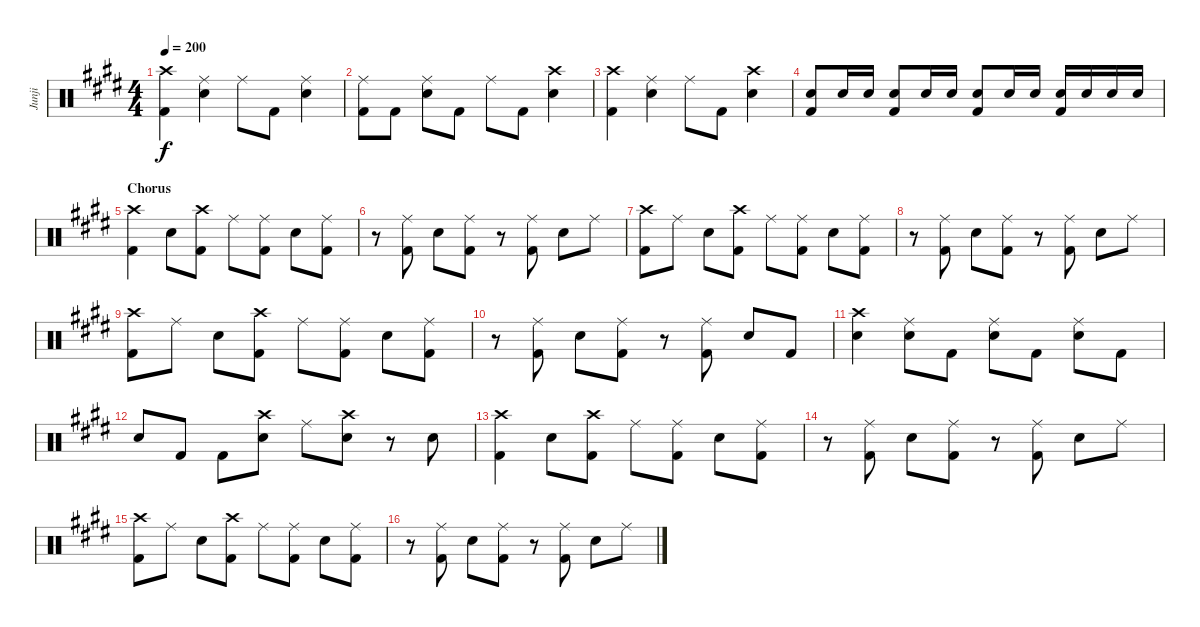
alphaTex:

\track ("Junji" "Junji") {instrument percussion}
\staff {score}
\articulation defaults
\ts (4 4)
\tempo 200
\clef neutral
\ks e
("Crash high (hit)" "Kick (hit) 2").4{dy f} ("Ride (middle)" "Snare (hit) 2").4 "Ride (middle)".8 "Kick (hit) 2".8 ("Ride (middle)" "Snare (hit) 2").4 |
("Ride (middle)" "Kick (hit) 2").8 "Kick (hit) 2".8 ("Ride (middle)" "Snare (hit) 2").8 "Kick (hit) 2".8 "Ride (middle)".8 "Kick (hit) 2".8 ("Crash high (hit)" "Snare (hit) 2").4 |
("Crash high (hit)" "Kick (hit) 2").4 ("Ride (middle)" "Snare (hit) 2").4 "Ride (middle)".8 "Kick (hit) 2".8 ("Crash high (hit)" "Snare (hit) 2").4 |
("Snare (hit) 2" "Kick (hit) 2").8 "Snare (hit) 2".16 "Snare (hit) 2".16 ("Snare (hit) 2" "Kick (hit) 2").8 "Snare (hit) 2".16 "Snare (hit) 2".16 ("Snare (hit) 2" "Kick (hit) 2").8 "Snare (hit) 2".16 "Snare (hit) 2".16 ("Snare (hit) 2" "Kick (hit) 2").16 "Snare (hit) 2".16 "Snare (hit) 2".16 "Snare (hit) 2".16 |
\section ("" "Chorus")
("Crash high (hit)" "Kick (hit) 2").4 "Snare (hit) 2".8 ("Crash high (hit)" "Kick (hit) 2").8 "Ride (middle)".8 ("Ride (middle)" "Kick (hit) 2").8 "Snare (hit) 2".8 ("Ride (middle)" "Kick (hit) 2").8 |
r.8 ("Ride (middle)" "Kick (hit) 2").8 "Snare (hit) 2".8 ("Ride (middle)" "Kick (hit) 2").8 r.8 ("Ride (middle)" "Kick (hit) 2").8 "Snare (hit) 2".8 "Ride (middle)".8 |
("Crash high (hit)" "Kick (hit) 2").8 "Ride (middle)".8 "Snare (hit) 2".8 ("Crash high (hit)" "Kick (hit) 2").8 "Ride (middle)".8 ("Ride (middle)" "Kick (hit) 2").8 "Snare (hit) 2".8 ("Ride (middle)" "Kick (hit) 2").8 |
r.8 ("Ride (middle)" "Kick (hit) 2").8 "Snare (hit) 2".8 ("Ride (middle)" "Kick (hit) 2").8 r.8 ("Ride (middle)" "Kick (hit) 2").8 "Snare (hit) 2".8 "Ride (middle)".8 |
("Crash high (hit)" "Kick (hit) 2").8 "Ride (middle)".8 "Snare (hit) 2".8 ("Crash high (hit)" "Kick (hit) 2").8 "Ride (middle)".8 ("Ride (middle)" "Kick (hit) 2").8 "Snare (hit) 2".8 ("Ride (middle)" "Kick (hit) 2").8 |
r.8 ("Ride (middle)" "Kick (hit) 2").8 "Snare (hit) 2".8 ("Ride (middle)" "Kick (hit) 2").8 r.8 ("Ride (middle)" "Kick (hit) 2").8 "Snare (hit) 2".8 "Kick (hit) 2".8 |
("Crash high (hit)" "Snare (hit) 2").4 ("Ride (middle)" "Snare (hit) 2").8 "Kick (hit) 2".8 ("Ride (middle)" "Snare (hit) 2").8 "Kick (hit) 2".8 ("Ride (middle)" "Snare (hit) 2").8 "Kick (hit) 2".8 |
"Snare (hit) 2".8 "Kick (hit) 2".8 "Kick (hit) 2".8 ("Crash high (hit)" "Snare (hit) 2").8 "Ride (middle)".8 ("Crash high (hit)" "Snare (hit) 2").8 r.8 "Snare (hit) 2".8 |
("Crash high (hit)" "Kick (hit) 2").4 "Snare (hit) 2".8 ("Crash high (hit)" "Kick (hit) 2").8 "Ride (middle)".8 ("Ride (middle)" "Kick (hit) 2").8 "Snare (hit) 2".8 ("Ride (middle)" "Kick (hit) 2").8 |
r.8 ("Ride (middle)" "Kick (hit) 2").8 "Snare (hit) 2".8 ("Ride (middle)" "Kick (hit) 2").8 r.8 ("Ride (middle)" "Kick (hit) 2").8 "Snare (hit) 2".8 "Ride (middle)".8 |
("Crash high (hit)" "Kick (hit) 2").8 "Ride (middle)".8 "Snare (hit) 2".8 ("Crash high (hit)" "Kick (hit) 2").8 "Ride (middle)".8 ("Ride (middle)" "Kick (hit) 2").8 "Snare (hit) 2".8 ("Ride (middle)" "Kick (hit) 2").8 |
r.8 ("Ride (middle)" "Kick (hit) 2").8 "Snare (hit) 2".8 ("Ride (middle)" "Kick (hit) 2").8 r.8 ("Ride (middle)" "Kick (hit) 2").8 "Snare (hit) 2".8 "Ride (middle)".8
